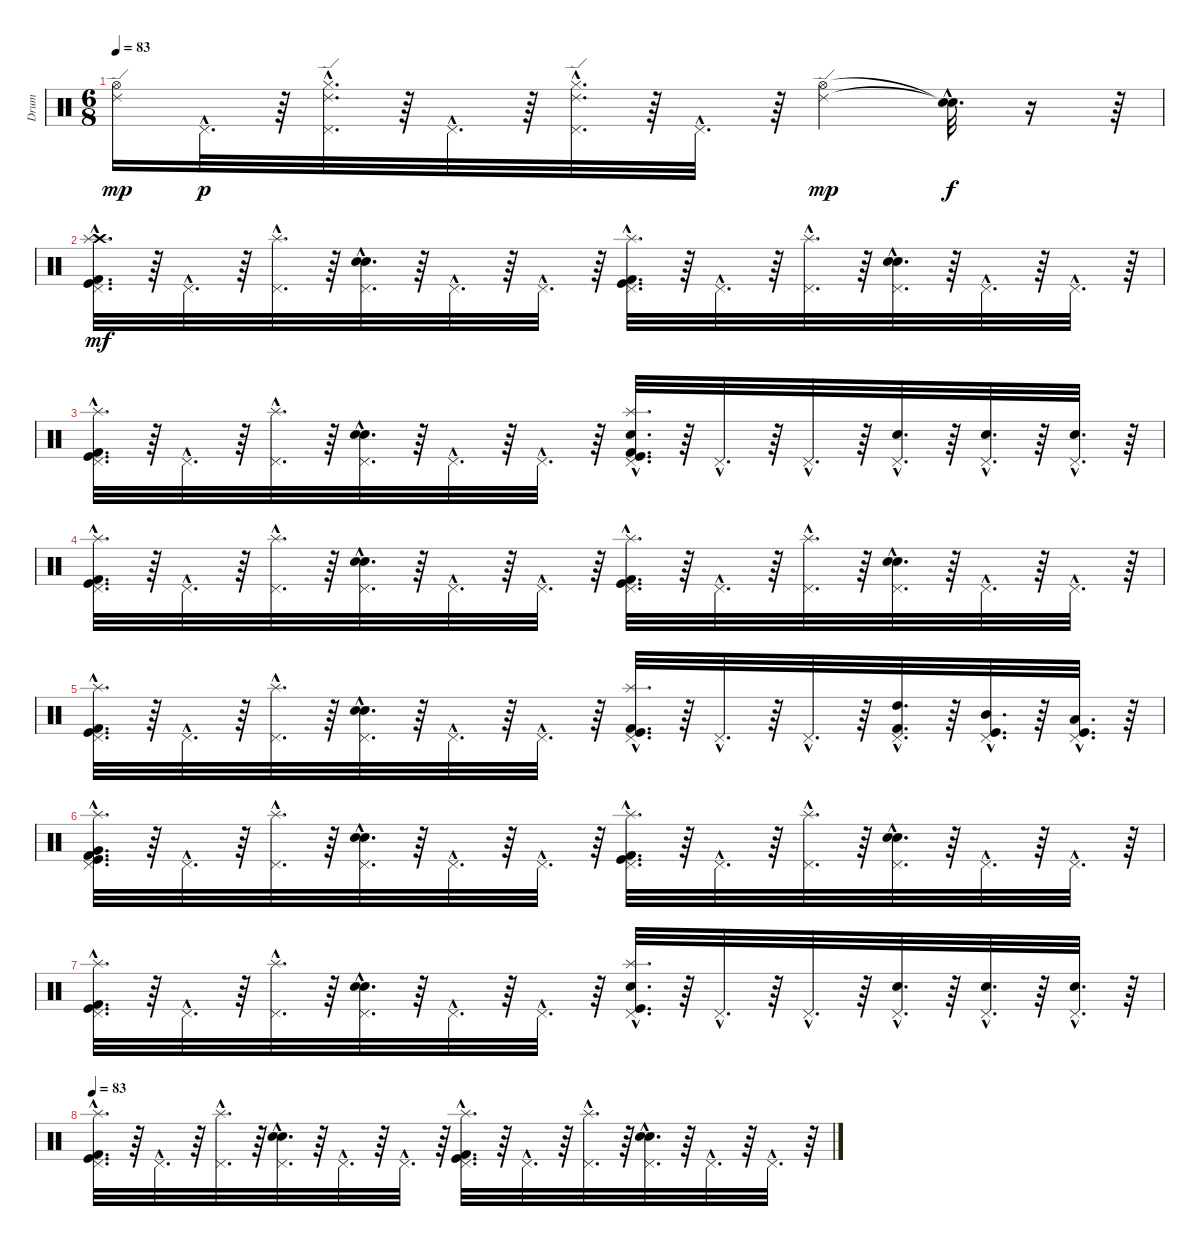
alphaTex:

\track ("Drum" "Drum") {instrument percussion}
\staff {score}
\articulation defaults
\ts (6 8)
\tempo 83
\clef neutral
\ks c
("Hi-Hat (open)" "Ride (edge) 2").16{dy mp} "Pedal Hi-Hat (hit)"{hac}.32{d dy p} r.64 ("Hi-Hat (closed)"{hac} "Ride (edge) 2"{hac} "Pedal Hi-Hat (hit)"{hac}).32{d} r.64 "Pedal Hi-Hat (hit)"{hac}.32{d} r.64 ("Hi-Hat (closed)"{hac} "Ride (edge) 2"{hac} "Pedal Hi-Hat (hit)"{hac}).32{d} r.64 "Pedal Hi-Hat (hit)"{hac}.32{d} r.64 ("Ride (edge) 2" "Hi-Hat (open)").4{dy mp} ("Snare (hit)"{hac t} "Snare (hit)"{hac t}).32{d dy f} r.16 r.64 |
("Kick (hit) 2"{hac} "Crash high (hit)"{hac} "Splash (hit)"{hac} "Kick (hit)"{hac} "Pedal Hi-Hat (hit)"{hac}).32{d dy mf} r.64 "Pedal Hi-Hat (hit)"{hac}.32{d} r.64 ("Splash (hit)"{hac} "Pedal Hi-Hat (hit)"{hac}).32{d} r.64 ("Electric Snare (hit)"{hac} "Snare (hit) 2"{hac} "Pedal Hi-Hat (hit)"{hac}).32{d} r.64 "Pedal Hi-Hat (hit)"{hac}.32{d} r.64 "Pedal Hi-Hat (hit)"{hac}.32{d} r.64 ("Kick (hit) 2"{hac} "Splash (hit)"{hac} "Kick (hit)"{hac} "Pedal Hi-Hat (hit)"{hac}).32{d} r.64 "Pedal Hi-Hat (hit)"{hac}.32{d} r.64 ("Splash (hit)"{hac} "Pedal Hi-Hat (hit)"{hac}).32{d} r.64 ("Snare (hit) 2"{hac} "Electric Snare (hit)"{hac} "Pedal Hi-Hat (hit)"{hac}).32{d} r.64 "Pedal Hi-Hat (hit)"{hac}.32{d} r.64 "Pedal Hi-Hat (hit)"{hac}.32{d} r.64 |
("Splash (hit)"{hac} "Pedal Hi-Hat (hit)"{hac} "Kick (hit)"{hac} "Kick (hit) 2"{hac}).32{d} r.64 "Pedal Hi-Hat (hit)"{hac}.32{d} r.64 ("Splash (hit)"{hac} "Pedal Hi-Hat (hit)"{hac}).32{d} r.64 ("Snare (hit) 2"{hac} "Electric Snare (hit)"{hac} "Pedal Hi-Hat (hit)"{hac}).32{d} r.64 "Pedal Hi-Hat (hit)"{hac}.32{d} r.64 "Pedal Hi-Hat (hit)"{hac}.32{d} r.64 ("Splash (hit)"{hac} "Electric Snare (hit)"{hac} "Kick (hit) 2"{hac} "Pedal Hi-Hat (hit)"{hac} "Kick (hit)"{hac}).32{d} r.64 "Pedal Hi-Hat (hit)"{hac}.32{d} r.64 "Pedal Hi-Hat (hit)"{hac}.32{d} r.64 ("Pedal Hi-Hat (hit)"{hac} "Snare (hit) 2"{hac}).32{d} r.64 ("Pedal Hi-Hat (hit)"{hac} "Snare (hit) 2"{hac}).32{d} r.64 ("Snare (hit) 2"{hac} "Pedal Hi-Hat (hit)"{hac}).32{d} r.64 |
("Kick (hit) 2"{hac} "Kick (hit)"{hac} "Pedal Hi-Hat (hit)"{hac} "Splash (hit)"{hac}).32{d} r.64 "Pedal Hi-Hat (hit)"{hac}.32{d} r.64 ("Pedal Hi-Hat (hit)"{hac} "Splash (hit)"{hac}).32{d} r.64 ("Electric Snare (hit)"{hac} "Snare (hit) 2"{hac} "Pedal Hi-Hat (hit)"{hac}).32{d} r.64 "Pedal Hi-Hat (hit)"{hac}.32{d} r.64 "Pedal Hi-Hat (hit)"{hac}.32{d} r.64 ("Kick (hit) 2"{hac} "Splash (hit)"{hac} "Pedal Hi-Hat (hit)"{hac} "Kick (hit)"{hac}).32{d} r.64 "Pedal Hi-Hat (hit)"{hac}.32{d} r.64 ("Splash (hit)"{hac} "Pedal Hi-Hat (hit)"{hac}).32{d} r.64 ("Pedal Hi-Hat (hit)"{hac} "Electric Snare (hit)"{hac} "Snare (hit) 2"{hac}).32{d} r.64 "Pedal Hi-Hat (hit)"{hac}.32{d} r.64 "Pedal Hi-Hat (hit)"{hac}.32{d} r.64 |
("Kick (hit) 2"{hac} "Splash (hit)"{hac} "Kick (hit)"{hac} "Pedal Hi-Hat (hit)"{hac}).32{d} r.64 "Pedal Hi-Hat (hit)"{hac}.32{d} r.64 ("Splash (hit)"{hac} "Pedal Hi-Hat (hit)"{hac}).32{d} r.64 ("Snare (hit) 2"{hac} "Electric Snare (hit)"{hac} "Pedal Hi-Hat (hit)"{hac}).32{d} r.64 "Pedal Hi-Hat (hit)"{hac}.32{d} r.64 "Pedal Hi-Hat (hit)"{hac}.32{d} r.64 ("Kick (hit) 2"{hac} "Splash (hit)"{hac} "Kick (hit)"{hac} "Pedal Hi-Hat (hit)"{hac}).32{d} r.64 "Pedal Hi-Hat (hit)"{hac}.32{d} r.64 "Pedal Hi-Hat (hit)"{hac}.32{d} r.64 ("Kick (hit) 2"{hac} "Pedal Hi-Hat (hit)"{hac} "High Tom (hit)"{hac}).32{d} r.64 ("Kick (hit)"{hac} "Mid Tom (hit)"{hac} "Pedal Hi-Hat (hit)"{hac}).32{d} r.64 ("Kick (hit)"{hac} "Low Tom (hit)"{hac} "Pedal Hi-Hat (hit)"{hac}).32{d} r.64 |
("Kick (hit) 2"{hac} "Very Low Tom (hit)"{hac} "Pedal Hi-Hat (hit)"{hac} "Kick (hit)"{hac} "Splash (hit)"{hac}).32{d} r.64 "Pedal Hi-Hat (hit)"{hac}.32{d} r.64 ("Pedal Hi-Hat (hit)"{hac} "Splash (hit)"{hac}).32{d} r.64 ("Pedal Hi-Hat (hit)"{hac} "Snare (hit) 2"{hac} "Electric Snare (hit)"{hac}).32{d} r.64 "Pedal Hi-Hat (hit)"{hac}.32{d} r.64 "Pedal Hi-Hat (hit)"{hac}.32{d} r.64 ("Kick (hit) 2"{hac} "Pedal Hi-Hat (hit)"{hac} "Kick (hit)"{hac} "Splash (hit)"{hac}).32{d} r.64 "Pedal Hi-Hat (hit)"{hac}.32{d} r.64 ("Pedal Hi-Hat (hit)"{hac} "Splash (hit)"{hac}).32{d} r.64 ("Pedal Hi-Hat (hit)"{hac} "Electric Snare (hit)"{hac} "Snare (hit) 2"{hac}).32{d} r.64 "Pedal Hi-Hat (hit)"{hac}.32{d} r.64 "Pedal Hi-Hat (hit)"{hac}.32{d} r.64 |
("Kick (hit) 2"{hac} "Pedal Hi-Hat (hit)"{hac} "Kick (hit)"{hac} "Splash (hit)"{hac}).32{d} r.64 "Pedal Hi-Hat (hit)"{hac}.32{d} r.64 ("Pedal Hi-Hat (hit)"{hac} "Splash (hit)"{hac}).32{d} r.64 ("Pedal Hi-Hat (hit)"{hac} "Snare (hit) 2"{hac} "Electric Snare (hit)"{hac}).32{d} r.64 "Pedal Hi-Hat (hit)"{hac}.32{d} r.64 "Pedal Hi-Hat (hit)"{hac}.32{d} r.64 ("Pedal Hi-Hat (hit)"{hac} "Kick (hit)"{hac} "Electric Snare (hit)"{hac} "Splash (hit)"{hac}).32{d} r.64 "Pedal Hi-Hat (hit)"{hac}.32{d} r.64 "Pedal Hi-Hat (hit)"{hac}.32{d} r.64 ("Pedal Hi-Hat (hit)"{hac} "Snare (hit) 2"{hac}).32{d} r.64 ("Pedal Hi-Hat (hit)"{hac} "Snare (hit) 2"{hac}).32{d} r.64 ("Pedal Hi-Hat (hit)"{hac} "Snare (hit) 2"{hac}).32{d} r.64 |
\tempo 83
("Kick (hit) 2"{hac} "Pedal Hi-Hat (hit)"{hac} "Kick (hit)"{hac} "Splash (hit)"{hac}).32{d} r.64 "Pedal Hi-Hat (hit)"{hac}.32{d} r.64 ("Pedal Hi-Hat (hit)"{hac} "Splash (hit)"{hac}).32{d} r.64 ("Pedal Hi-Hat (hit)"{hac} "Snare (hit) 2"{hac} "Electric Snare (hit)"{hac}).32{d} r.64 "Pedal Hi-Hat (hit)"{hac}.32{d} r.64 "Pedal Hi-Hat (hit)"{hac}.32{d} r.64 ("Kick (hit) 2"{hac} "Pedal Hi-Hat (hit)"{hac} "Kick (hit)"{hac} "Splash (hit)"{hac}).32{d} r.64 "Pedal Hi-Hat (hit)"{hac}.32{d} r.64 ("Pedal Hi-Hat (hit)"{hac} "Splash (hit)"{hac}).32{d} r.64 ("Pedal Hi-Hat (hit)"{hac} "Snare (hit) 2"{hac} "Electric Snare (hit)"{hac}).32{d} r.64 "Pedal Hi-Hat (hit)"{hac}.32{d} r.64 "Pedal Hi-Hat (hit)"{hac}.32{d} r.64
